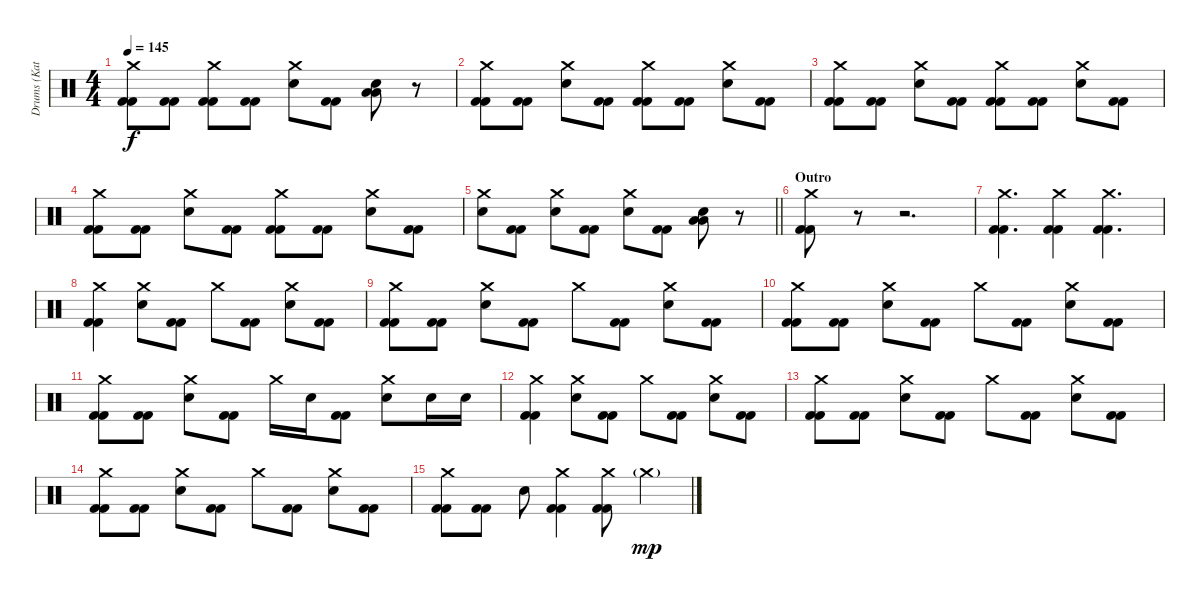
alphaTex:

\track ("Drums (Katsuma)" "Drums (Kat") {instrument percussion}
\staff {score}
\articulation defaults
\ts (4 4)
\tempo 145
\clef neutral
\ks c
("Crash medium (hit)" "Kick (hit) 2" "Kick (hit) 2").8{dy f} ("Kick (hit) 2" "Kick (hit) 2").8 ("Crash medium (hit)" "Kick (hit) 2" "Kick (hit) 2").8 ("Kick (hit) 2" "Kick (hit) 2").8 ("Crash medium (hit)" "Electric Snare (hit)").8 ("Kick (hit) 2" "Kick (hit) 2").8 ("Low Tom (hit)" "Low Tom (hit)" "Electric Snare (hit)").8 r.8 |
("Crash medium (hit)" "Kick (hit) 2" "Kick (hit) 2").8 ("Kick (hit) 2" "Kick (hit) 2").8 ("Crash medium (hit)" "Electric Snare (hit)").8 ("Kick (hit) 2" "Kick (hit) 2").8 ("Crash medium (hit)" "Kick (hit) 2" "Kick (hit) 2").8 ("Kick (hit) 2" "Kick (hit) 2").8 ("Crash medium (hit)" "Electric Snare (hit)").8 ("Kick (hit) 2" "Kick (hit) 2").8 |
("Crash medium (hit)" "Kick (hit) 2" "Kick (hit) 2").8 ("Kick (hit) 2" "Kick (hit) 2").8 ("Crash medium (hit)" "Electric Snare (hit)").8 ("Kick (hit) 2" "Kick (hit) 2").8 ("Crash medium (hit)" "Kick (hit) 2" "Kick (hit) 2").8 ("Kick (hit) 2" "Kick (hit) 2").8 ("Crash medium (hit)" "Electric Snare (hit)").8 ("Kick (hit) 2" "Kick (hit) 2").8 |
("Crash medium (hit)" "Kick (hit) 2" "Kick (hit) 2").8 ("Kick (hit) 2" "Kick (hit) 2").8 ("Crash medium (hit)" "Electric Snare (hit)").8 ("Kick (hit) 2" "Kick (hit) 2").8 ("Crash medium (hit)" "Kick (hit) 2" "Kick (hit) 2").8 ("Kick (hit) 2" "Kick (hit) 2").8 ("Crash medium (hit)" "Electric Snare (hit)").8 ("Kick (hit) 2" "Kick (hit) 2").8 |
\barLineRight lightlight
("Crash medium (hit)" "Electric Snare (hit)").8 ("Kick (hit) 2" "Kick (hit) 2").8 ("Crash medium (hit)" "Electric Snare (hit)").8 ("Kick (hit) 2" "Kick (hit) 2").8 ("Crash medium (hit)" "Electric Snare (hit)").8 ("Kick (hit) 2" "Kick (hit) 2").8 ("Low Tom (hit)" "Low Tom (hit)" "Electric Snare (hit)").8 r.8 |
\section ("" "Outro")
("Crash medium (hit)" "Kick (hit) 2" "Kick (hit) 2").8 r.8{volume 0} r.2{d} |
("Crash medium (hit)" "Kick (hit) 2" "Kick (hit) 2").4{d volume 13} ("Crash medium (hit)" "Kick (hit) 2" "Kick (hit) 2").4{volume 13} ("Crash medium (hit)" "Kick (hit) 2" "Kick (hit) 2").4{d} |
("Crash medium (hit)" "Kick (hit) 2" "Kick (hit) 2").4{volume 13} ("Crash medium (hit)" "Electric Snare (hit)").8 ("Kick (hit) 2" "Kick (hit) 2").8 "Crash medium (hit)".8 ("Kick (hit) 2" "Kick (hit) 2").8 ("Crash medium (hit)" "Electric Snare (hit)").8 ("Kick (hit) 2" "Kick (hit) 2").8 |
("Crash medium (hit)" "Kick (hit) 2" "Kick (hit) 2").8 ("Kick (hit) 2" "Kick (hit) 2").8 ("Crash medium (hit)" "Electric Snare (hit)").8 ("Kick (hit) 2" "Kick (hit) 2").8 "Crash medium (hit)".8 ("Kick (hit) 2" "Kick (hit) 2").8 ("Crash medium (hit)" "Electric Snare (hit)").8 ("Kick (hit) 2" "Kick (hit) 2").8 |
("Crash medium (hit)" "Kick (hit) 2" "Kick (hit) 2").8 ("Kick (hit) 2" "Kick (hit) 2").8 ("Crash medium (hit)" "Electric Snare (hit)").8 ("Kick (hit) 2" "Kick (hit) 2").8 "Crash medium (hit)".8 ("Kick (hit) 2" "Kick (hit) 2").8 ("Crash medium (hit)" "Electric Snare (hit)").8 ("Kick (hit) 2" "Kick (hit) 2").8 |
("Crash medium (hit)" "Kick (hit) 2" "Kick (hit) 2").8 ("Kick (hit) 2" "Kick (hit) 2").8 ("Crash medium (hit)" "Electric Snare (hit)").8 ("Kick (hit) 2" "Kick (hit) 2").8 "Crash medium (hit)".16 "Electric Snare (hit)".16 ("Kick (hit) 2" "Kick (hit) 2").8 ("Crash medium (hit)" "Electric Snare (hit)").8 "Electric Snare (hit)".16 "Electric Snare (hit)".16 |
("Crash medium (hit)" "Kick (hit) 2" "Kick (hit) 2").4{volume 13} ("Crash medium (hit)" "Electric Snare (hit)").8 ("Kick (hit) 2" "Kick (hit) 2").8 "Crash medium (hit)".8 ("Kick (hit) 2" "Kick (hit) 2").8 ("Crash medium (hit)" "Electric Snare (hit)").8 ("Kick (hit) 2" "Kick (hit) 2").8 |
("Crash medium (hit)" "Kick (hit) 2" "Kick (hit) 2").8 ("Kick (hit) 2" "Kick (hit) 2").8 ("Crash medium (hit)" "Electric Snare (hit)").8 ("Kick (hit) 2" "Kick (hit) 2").8 "Crash medium (hit)".8 ("Kick (hit) 2" "Kick (hit) 2").8 ("Crash medium (hit)" "Electric Snare (hit)").8 ("Kick (hit) 2" "Kick (hit) 2").8 |
("Crash medium (hit)" "Kick (hit) 2" "Kick (hit) 2").8 ("Kick (hit) 2" "Kick (hit) 2").8 ("Crash medium (hit)" "Electric Snare (hit)").8 ("Kick (hit) 2" "Kick (hit) 2").8 "Crash medium (hit)".8 ("Kick (hit) 2" "Kick (hit) 2").8 ("Crash medium (hit)" "Electric Snare (hit)").8 ("Kick (hit) 2" "Kick (hit) 2").8 |
("Crash medium (hit)" "Kick (hit) 2" "Kick (hit) 2").8 ("Kick (hit) 2" "Kick (hit) 2").8 "Electric Snare (hit)".8 ("Crash medium (hit)" "Kick (hit) 2" "Kick (hit) 2").4 ("Crash medium (hit)" "Kick (hit) 2" "Kick (hit) 2").8 "Crash medium (hit)"{g}.4{dy mp}
